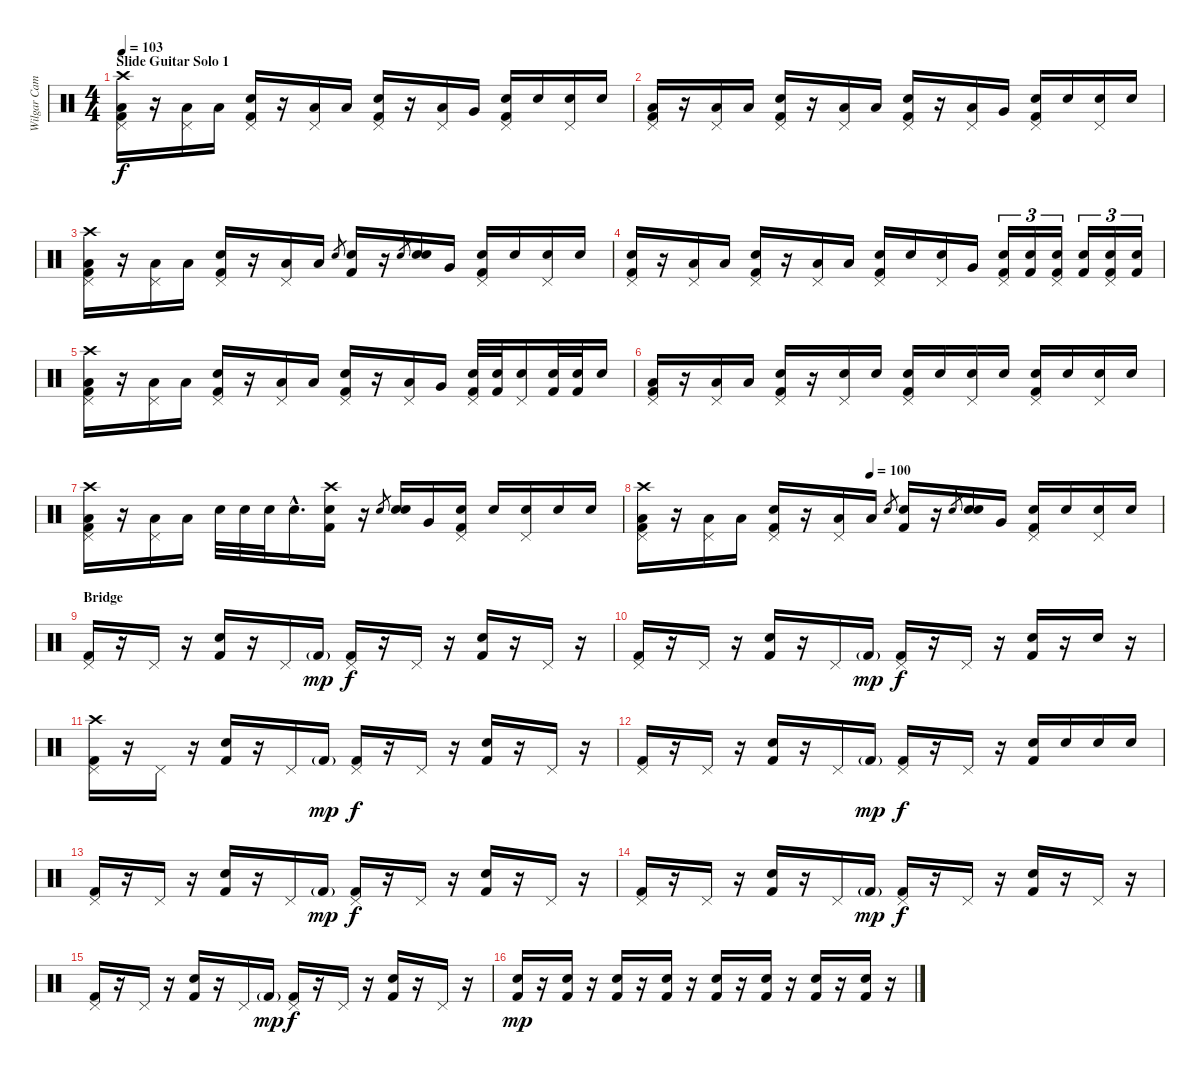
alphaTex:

\track ("Wilgar Campbell" "Wilgar Cam") {instrument percussion}
\staff {score}
\articulation defaults
\ts (4 4)
\section ("" "Slide Guitar Solo 1")
\tempo 103
\clef neutral
\ks c
("Crash high (hit)" "Low Tom (hit)" "Pedal Hi-Hat (hit)" "Kick (hit) 2").16{dy f} r.16 ("Low Tom (hit)" "Pedal Hi-Hat (hit)").16 "Low Tom (hit)".16 ("Snare (hit) 2" "Pedal Hi-Hat (hit)" "Kick (hit) 2").16 r.16 ("Low Tom (hit)" "Pedal Hi-Hat (hit)").16 "Low Tom (hit)".16 ("Snare (hit) 2" "Pedal Hi-Hat (hit)" "Kick (hit) 2").16 r.16 ("Low Tom (hit)" "Pedal Hi-Hat (hit)").16 "Very Low Tom (hit)".16 ("Electric Snare (hit)" "Pedal Hi-Hat (hit)" "Kick (hit) 2").16 "Electric Snare (hit)".16 ("Electric Snare (hit)" "Pedal Hi-Hat (hit)").16 "Electric Snare (hit)".16 |
("Low Tom (hit)" "Pedal Hi-Hat (hit)" "Kick (hit) 2").16 r.16 ("Low Tom (hit)" "Pedal Hi-Hat (hit)").16 "Low Tom (hit)".16 ("Snare (hit) 2" "Pedal Hi-Hat (hit)" "Kick (hit) 2").16 r.16 ("Low Tom (hit)" "Pedal Hi-Hat (hit)").16 "Low Tom (hit)".16 ("Snare (hit) 2" "Pedal Hi-Hat (hit)" "Kick (hit) 2").16 r.16 ("Low Tom (hit)" "Pedal Hi-Hat (hit)").16 "Very Low Tom (hit)".16 ("Electric Snare (hit)" "Pedal Hi-Hat (hit)" "Kick (hit) 2").16 "Electric Snare (hit)".16 ("Electric Snare (hit)" "Pedal Hi-Hat (hit)").16 "Electric Snare (hit)".16 |
("Crash high (hit)" "Low Tom (hit)" "Pedal Hi-Hat (hit)" "Kick (hit) 2").16 r.16 ("Low Tom (hit)" "Pedal Hi-Hat (hit)").16 "Low Tom (hit)".16 ("Snare (hit) 2" "Pedal Hi-Hat (hit)" "Kick (hit) 2").16 r.16 ("Low Tom (hit)" "Pedal Hi-Hat (hit)").16 "Low Tom (hit)".16 "Snare (hit) 2".8{gr} ("Snare (hit) 2" "Kick (hit) 2").16 r.16 "Snare (hit) 2".8{gr} ("Snare (hit) 2" "Snare (hit) 2").16 "Very Low Tom (hit)".16 ("Electric Snare (hit)" "Pedal Hi-Hat (hit)" "Kick (hit) 2").16 "Electric Snare (hit)".16 ("Electric Snare (hit)" "Pedal Hi-Hat (hit)").16 "Electric Snare (hit)".16 |
("Snare (hit) 2" "Pedal Hi-Hat (hit)" "Kick (hit) 2").16 r.16 ("Low Tom (hit)" "Pedal Hi-Hat (hit)").16 "Low Tom (hit)".16 ("Snare (hit) 2" "Pedal Hi-Hat (hit)" "Kick (hit) 2").16 r.16 ("Low Tom (hit)" "Pedal Hi-Hat (hit)").16 "Low Tom (hit)".16 ("Snare (hit) 2" "Pedal Hi-Hat (hit)" "Kick (hit) 2").16 "Snare (hit) 2".16 ("Snare (hit) 2" "Pedal Hi-Hat (hit)").16 "Very Low Tom (hit)".16 ("Electric Snare (hit)" "Pedal Hi-Hat (hit)" "Kick (hit) 2").16{tu (3 2)} ("Electric Snare (hit)" "Kick (hit) 2").16{tu (3 2)} ("Electric Snare (hit)" "Pedal Hi-Hat (hit)" "Kick (hit) 2").16{tu (3 2)} ("Electric Snare (hit)" "Kick (hit) 2").16{tu (3 2)} ("Electric Snare (hit)" "Pedal Hi-Hat (hit)" "Kick (hit) 2").16{tu (3 2)} ("Electric Snare (hit)" "Kick (hit) 2").16{tu (3 2)} |
("Crash high (hit)" "Low Tom (hit)" "Pedal Hi-Hat (hit)" "Kick (hit) 2").16 r.16 ("Low Tom (hit)" "Pedal Hi-Hat (hit)").16 "Low Tom (hit)".16 ("Snare (hit) 2" "Pedal Hi-Hat (hit)" "Kick (hit) 2").16 r.16 ("Low Tom (hit)" "Pedal Hi-Hat (hit)").16 "Low Tom (hit)".16 ("Snare (hit) 2" "Pedal Hi-Hat (hit)" "Kick (hit) 2").16 r.16 ("Low Tom (hit)" "Pedal Hi-Hat (hit)").16 "Very Low Tom (hit)".16 ("Electric Snare (hit)" "Pedal Hi-Hat (hit)" "Kick (hit) 2").32 ("Electric Snare (hit)" "Kick (hit) 2").32 ("Electric Snare (hit)" "Pedal Hi-Hat (hit)").16 ("Electric Snare (hit)" "Kick (hit) 2").32 ("Electric Snare (hit)" "Kick (hit) 2").32 "Electric Snare (hit)".16 |
("Low Tom (hit)" "Pedal Hi-Hat (hit)" "Kick (hit) 2").16 r.16 ("Low Tom (hit)" "Pedal Hi-Hat (hit)").16 "Low Tom (hit)".16 ("Snare (hit) 2" "Pedal Hi-Hat (hit)" "Kick (hit) 2").16 r.16 ("Snare (hit) 2" "Pedal Hi-Hat (hit)").16 "Snare (hit) 2".16 ("Electric Snare (hit)" "Pedal Hi-Hat (hit)" "Kick (hit) 2").16 "Snare (hit) 2".16 ("Snare (hit) 2" "Pedal Hi-Hat (hit)").16 "Snare (hit) 2".16 ("Snare (hit) 2" "Pedal Hi-Hat (hit)" "Kick (hit) 2").16 "Electric Snare (hit)".16 ("Electric Snare (hit)" "Pedal Hi-Hat (hit)").16 "Electric Snare (hit)".16 |
("Crash high (hit)" "Low Tom (hit)" "Pedal Hi-Hat (hit)" "Kick (hit) 2").16 r.16 ("Low Tom (hit)" "Pedal Hi-Hat (hit)").16 "Low Tom (hit)".16 "Snare (hit) 2".32 "Snare (hit) 2".32 "Snare (hit) 2".32 "Electric Snare (hit)"{hac}.16{d} ("Crash high (hit)" "Snare (hit) 2" "Kick (hit) 2").16 r.16 "Snare (hit) 2".8{gr} ("Snare (hit) 2" "Snare (hit) 2").16 "Very Low Tom (hit)".16 ("Electric Snare (hit)" "Pedal Hi-Hat (hit)" "Kick (hit) 2").16 "Electric Snare (hit)".16 ("Electric Snare (hit)" "Pedal Hi-Hat (hit)").16 "Electric Snare (hit)".16 "Electric Snare (hit)".16 |
\tempo (100 0.4375)
("Crash high (hit)" "Low Tom (hit)" "Pedal Hi-Hat (hit)" "Kick (hit) 2").16 r.16 ("Low Tom (hit)" "Pedal Hi-Hat (hit)").16 "Low Tom (hit)".16 ("Snare (hit) 2" "Pedal Hi-Hat (hit)" "Kick (hit) 2").16 r.16 ("Low Tom (hit)" "Pedal Hi-Hat (hit)").16 "Low Tom (hit)".16 "Snare (hit) 2".8{gr} ("Snare (hit) 2" "Kick (hit) 2").16 r.16 "Snare (hit) 2".8{gr} ("Snare (hit) 2" "Snare (hit) 2").16 "Very Low Tom (hit)".16 ("Electric Snare (hit)" "Pedal Hi-Hat (hit)" "Kick (hit) 2").16 "Electric Snare (hit)".16 ("Electric Snare (hit)" "Pedal Hi-Hat (hit)").16 "Electric Snare (hit)".16 |
\section ("" "Bridge")
("Pedal Hi-Hat (hit)" "Kick (hit) 2").16 r.16 "Pedal Hi-Hat (hit)".16 r.16 ("Snare (hit) 2" "Kick (hit) 2").16 r.16 "Pedal Hi-Hat (hit)".16 "Kick (hit) 2"{g}.16{dy mp} ("Pedal Hi-Hat (hit)" "Kick (hit) 2").16{dy f} r.16 "Pedal Hi-Hat (hit)".16 r.16 ("Snare (hit) 2" "Kick (hit) 2").16 r.16 "Pedal Hi-Hat (hit)".16 r.16 |
("Pedal Hi-Hat (hit)" "Kick (hit) 2").16 r.16 "Pedal Hi-Hat (hit)".16 r.16 ("Snare (hit) 2" "Kick (hit) 2").16 r.16 "Pedal Hi-Hat (hit)".16 "Kick (hit) 2"{g}.16{dy mp} ("Pedal Hi-Hat (hit)" "Kick (hit) 2").16{dy f} r.16 "Pedal Hi-Hat (hit)".16 r.16 ("Snare (hit) 2" "Kick (hit) 2").16 r.16 "Snare (hit) 2".16 r.16 |
("Crash high (hit)" "Pedal Hi-Hat (hit)" "Kick (hit) 2").16 r.16 "Pedal Hi-Hat (hit)".16 r.16 ("Snare (hit) 2" "Kick (hit) 2").16 r.16 "Pedal Hi-Hat (hit)".16 "Kick (hit) 2"{g}.16{dy mp} ("Pedal Hi-Hat (hit)" "Kick (hit) 2").16{dy f} r.16 "Pedal Hi-Hat (hit)".16 r.16 ("Snare (hit) 2" "Kick (hit) 2").16 r.16 "Pedal Hi-Hat (hit)".16 r.16 |
("Pedal Hi-Hat (hit)" "Kick (hit) 2").16 r.16 "Pedal Hi-Hat (hit)".16 r.16 ("Snare (hit) 2" "Kick (hit) 2").16 r.16 "Pedal Hi-Hat (hit)".16 "Kick (hit) 2"{g}.16{dy mp} ("Pedal Hi-Hat (hit)" "Kick (hit) 2").16{dy f} r.16 "Pedal Hi-Hat (hit)".16 r.16 ("Snare (hit) 2" "Kick (hit) 2").16 "Snare (hit) 2".16 "Snare (hit) 2".16 "Snare (hit) 2".16 |
("Pedal Hi-Hat (hit)" "Kick (hit) 2").16 r.16 "Pedal Hi-Hat (hit)".16 r.16 ("Snare (hit) 2" "Kick (hit) 2").16 r.16 "Pedal Hi-Hat (hit)".16 "Kick (hit) 2"{g}.16{dy mp} ("Pedal Hi-Hat (hit)" "Kick (hit) 2").16{dy f} r.16 "Pedal Hi-Hat (hit)".16 r.16 ("Snare (hit) 2" "Kick (hit) 2").16 r.16 "Pedal Hi-Hat (hit)".16 r.16 |
("Pedal Hi-Hat (hit)" "Kick (hit) 2").16 r.16 "Pedal Hi-Hat (hit)".16 r.16 ("Snare (hit) 2" "Kick (hit) 2").16 r.16 "Pedal Hi-Hat (hit)".16 "Kick (hit) 2"{g}.16{dy mp} ("Pedal Hi-Hat (hit)" "Kick (hit) 2").16{dy f} r.16 "Pedal Hi-Hat (hit)".16 r.16 ("Snare (hit) 2" "Kick (hit) 2").16 r.16 "Pedal Hi-Hat (hit)".16 r.16 |
("Pedal Hi-Hat (hit)" "Kick (hit) 2").16 r.16 "Pedal Hi-Hat (hit)".16 r.16 ("Snare (hit) 2" "Kick (hit) 2").16 r.16 "Pedal Hi-Hat (hit)".16 "Kick (hit) 2"{g}.16{dy mp} ("Pedal Hi-Hat (hit)" "Kick (hit) 2").16{dy f} r.16 "Pedal Hi-Hat (hit)".16 r.16 ("Snare (hit) 2" "Kick (hit) 2").16 r.16 "Pedal Hi-Hat (hit)".16 r.16 |
("Snare (hit) 2" "Kick (hit) 2").16{dy mp} r.16 ("Snare (hit) 2" "Kick (hit) 2").16 r.16 ("Snare (hit) 2" "Kick (hit) 2").16 r.16 ("Snare (hit) 2" "Kick (hit) 2").16 r.16 ("Snare (hit) 2" "Kick (hit) 2").16 r.16 ("Snare (hit) 2" "Kick (hit) 2").16 r.16 ("Snare (hit) 2" "Kick (hit) 2").16 r.16 ("Snare (hit) 2" "Kick (hit) 2").16 r.16
